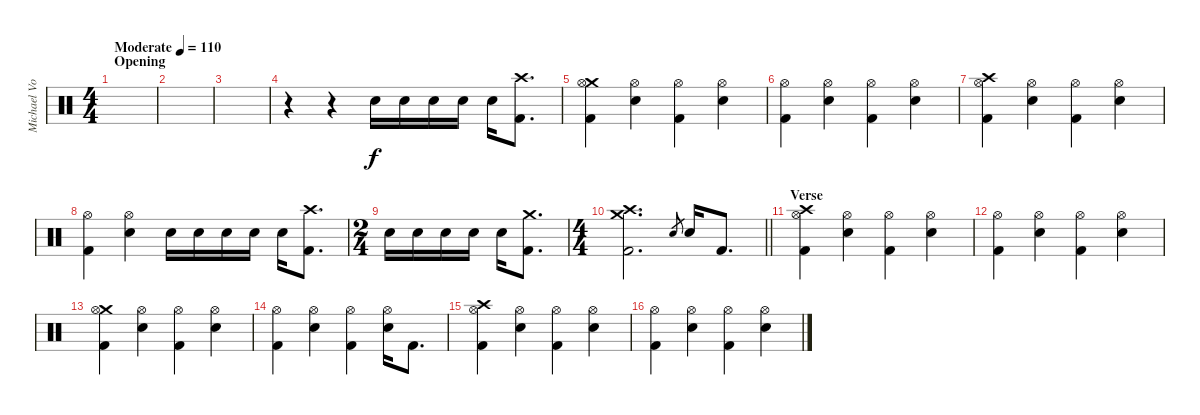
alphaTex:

\track ("Michael Von Knorring" "Michael Vo") {instrument percussion}
\staff {score}
\articulation defaults
\ts (4 4)
\section ("" "Opening")
\tempo (110 "Moderate")
\clef neutral
\ks c
|
|
|
r.4 r.4 "Snare (hit) 2".16 "Snare (hit) 2".16 "Snare (hit) 2".16 "Snare (hit) 2".16 "Snare (hit) 2".16 ("Crash high (hit)" "Kick (hit) 2").8{d} |
("Crash medium (hit)" "Hi-Hat (open)" "Kick (hit) 2").4 ("Hi-Hat (open)" "Snare (hit) 2").4 ("Hi-Hat (open)" "Kick (hit) 2").4 ("Hi-Hat (open)" "Snare (hit) 2").4 |
("Hi-Hat (open)" "Kick (hit) 2").4 ("Hi-Hat (open)" "Snare (hit) 2").4 ("Hi-Hat (open)" "Kick (hit) 2").4 ("Hi-Hat (open)" "Snare (hit) 2").4 |
("Crash high (hit)" "Hi-Hat (open)" "Kick (hit) 2").4 ("Hi-Hat (open)" "Snare (hit) 2").4 ("Hi-Hat (open)" "Kick (hit) 2").4 ("Hi-Hat (open)" "Snare (hit) 2").4 |
("Hi-Hat (open)" "Kick (hit) 2").4 ("Hi-Hat (open)" "Snare (hit) 2").4 "Snare (hit) 2".16 "Snare (hit) 2".16 "Snare (hit) 2".16 "Snare (hit) 2".16 "Snare (hit) 2".16 ("Crash high (hit)" "Kick (hit) 2").8{d} |
\ts (2 4)
"Snare (hit) 2".16 "Snare (hit) 2".16 "Snare (hit) 2".16 "Snare (hit) 2".16 "Snare (hit) 2".16 ("Crash medium (hit)" "Kick (hit) 2").8{d} |
\ts (4 4)
\barLineRight lightlight
("Crash high (hit)" "Crash medium (hit)" "Kick (hit) 2").2{d} "Snare (hit) 2".8{gr} "Snare (hit) 2".16 "Kick (hit) 2".8{d} |
\section ("" "Verse")
("Crash high (hit)" "Hi-Hat (open)" "Kick (hit) 2").4 ("Hi-Hat (open)" "Snare (hit) 2").4 ("Hi-Hat (open)" "Kick (hit) 2").4 ("Hi-Hat (open)" "Snare (hit) 2").4 |
("Hi-Hat (open)" "Kick (hit) 2").4 ("Hi-Hat (open)" "Snare (hit) 2").4 ("Hi-Hat (open)" "Kick (hit) 2").4 ("Hi-Hat (open)" "Snare (hit) 2").4 |
("Crash medium (hit)" "Hi-Hat (open)" "Kick (hit) 2").4 ("Hi-Hat (open)" "Snare (hit) 2").4 ("Hi-Hat (open)" "Kick (hit) 2").4 ("Hi-Hat (open)" "Snare (hit) 2").4 |
("Hi-Hat (open)" "Kick (hit) 2").4 ("Hi-Hat (open)" "Snare (hit) 2").4 ("Hi-Hat (open)" "Kick (hit) 2").4 ("Hi-Hat (open)" "Snare (hit) 2").16 "Kick (hit) 2".8{d} |
("Crash high (hit)" "Hi-Hat (open)" "Kick (hit) 2").4 ("Hi-Hat (open)" "Snare (hit) 2").4 ("Hi-Hat (open)" "Kick (hit) 2").4 ("Hi-Hat (open)" "Snare (hit) 2").4 |
("Hi-Hat (open)" "Kick (hit) 2").4 ("Hi-Hat (open)" "Snare (hit) 2").4 ("Hi-Hat (open)" "Kick (hit) 2").4 ("Hi-Hat (open)" "Snare (hit) 2").4
